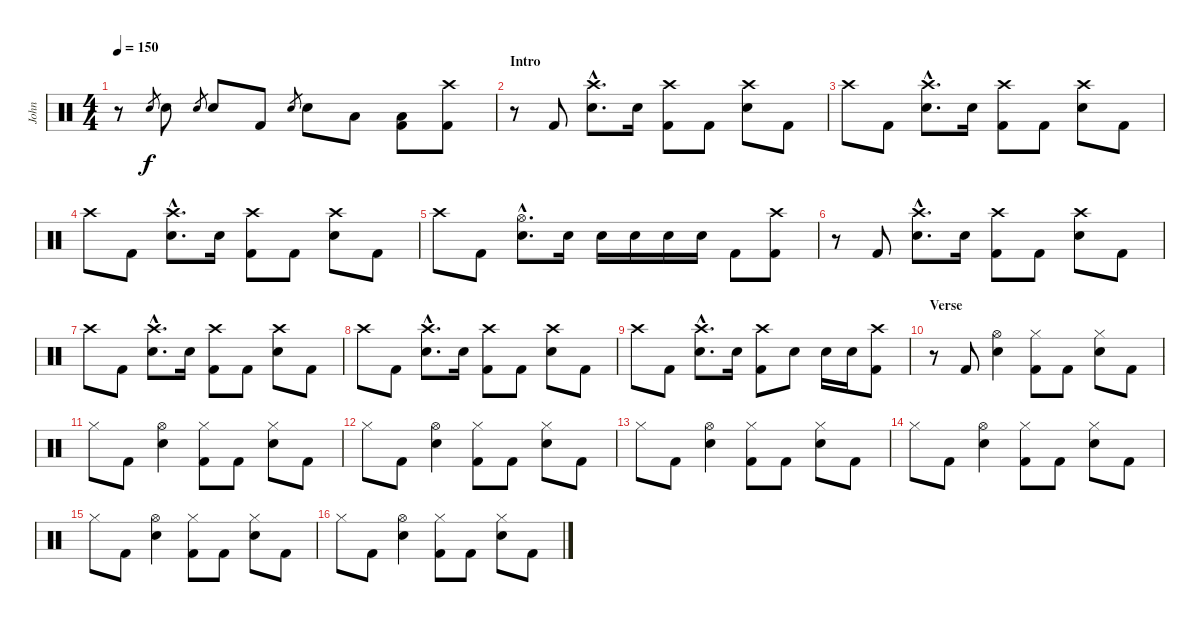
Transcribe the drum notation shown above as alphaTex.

\track ("John" "John") {instrument percussion}
\staff {score}
\articulation defaults
\ts (4 4)
\tempo 150
\clef neutral
\ks c
r.8{dy f} "Electric Snare (hit)".8{gr} "Electric Snare (hit)".8 "Electric Snare (hit)".8{gr} "Electric Snare (hit)".8 "Kick (hit) 2".8 "Electric Snare (hit)".8{gr} "Electric Snare (hit)".8 "Low Tom (hit)".8 ("Low Floor Tom (hit)" "Kick (hit) 2").8 ("Crash high (hit)" "Kick (hit) 2").8 |
\section ("" "Intro")
r.8 "Kick (hit) 2".8 ("Crash high (hit)"{hac} "Electric Snare (hit)"{hac}).8{d} "Electric Snare (hit)".16 ("Crash high (hit)" "Kick (hit) 2").8 "Kick (hit) 2".8 ("Crash high (hit)" "Electric Snare (hit)").8 "Kick (hit) 2".8 |
"Crash high (hit)".8 "Kick (hit) 2".8 ("Crash high (hit)"{hac} "Electric Snare (hit)"{hac}).8{d} "Electric Snare (hit)".16 ("Crash high (hit)" "Kick (hit) 2").8 "Kick (hit) 2".8 ("Crash high (hit)" "Electric Snare (hit)").8 "Kick (hit) 2".8 |
"Crash high (hit)".8 "Kick (hit) 2".8 ("Crash high (hit)"{hac} "Electric Snare (hit)"{hac}).8{d} "Electric Snare (hit)".16 ("Crash high (hit)" "Kick (hit) 2").8 "Kick (hit) 2".8 ("Crash high (hit)" "Electric Snare (hit)").8 "Kick (hit) 2".8 |
"Crash high (hit)".8 "Kick (hit) 2".8 ("Hi-Hat (open)"{hac} "Electric Snare (hit)"{hac}).8{d} "Electric Snare (hit)".16 "Electric Snare (hit)".16 "Electric Snare (hit)".16 "Electric Snare (hit)".16 "Electric Snare (hit)".16 "Kick (hit) 2".8 ("Crash high (hit)" "Kick (hit) 2").8 |
r.8 "Kick (hit) 2".8 ("Crash high (hit)"{hac} "Electric Snare (hit)"{hac}).8{d} "Electric Snare (hit)".16 ("Crash high (hit)" "Kick (hit) 2").8 "Kick (hit) 2".8 ("Crash high (hit)" "Electric Snare (hit)").8 "Kick (hit) 2".8 |
"Crash high (hit)".8 "Kick (hit) 2".8 ("Crash high (hit)"{hac} "Electric Snare (hit)"{hac}).8{d} "Electric Snare (hit)".16 ("Crash high (hit)" "Kick (hit) 2").8 "Kick (hit) 2".8 ("Crash high (hit)" "Electric Snare (hit)").8 "Kick (hit) 2".8 |
"Crash high (hit)".8 "Kick (hit) 2".8 ("Crash high (hit)"{hac} "Electric Snare (hit)"{hac}).8{d} "Electric Snare (hit)".16 ("Crash high (hit)" "Kick (hit) 2").8 "Kick (hit) 2".8 ("Crash high (hit)" "Electric Snare (hit)").8 "Kick (hit) 2".8 |
"Crash high (hit)".8 "Kick (hit) 2".8 ("Crash high (hit)"{hac} "Electric Snare (hit)"{hac}).8{d} "Electric Snare (hit)".16 ("Crash high (hit)" "Kick (hit) 2").8 "Electric Snare (hit)".8 "Electric Snare (hit)".16 "Electric Snare (hit)".16 ("Crash high (hit)" "Kick (hit) 2").8 |
\section ("" "Verse")
r.8 "Kick (hit) 2".8 ("Hi-Hat (open)" "Electric Snare (hit)").4 ("Hi-Hat (closed)" "Kick (hit) 2").8 "Kick (hit) 2".8 ("Hi-Hat (closed)" "Electric Snare (hit)").8 "Kick (hit) 2".8 |
"Hi-Hat (closed)".8 "Kick (hit) 2".8 ("Hi-Hat (open)" "Electric Snare (hit)").4 ("Hi-Hat (closed)" "Kick (hit) 2").8 "Kick (hit) 2".8 ("Hi-Hat (closed)" "Electric Snare (hit)").8 "Kick (hit) 2".8 |
"Hi-Hat (closed)".8 "Kick (hit) 2".8 ("Hi-Hat (open)" "Electric Snare (hit)").4 ("Hi-Hat (closed)" "Kick (hit) 2").8 "Kick (hit) 2".8 ("Hi-Hat (closed)" "Electric Snare (hit)").8 "Kick (hit) 2".8 |
"Hi-Hat (closed)".8 "Kick (hit) 2".8 ("Hi-Hat (open)" "Electric Snare (hit)").4 ("Hi-Hat (closed)" "Kick (hit) 2").8 "Kick (hit) 2".8 ("Hi-Hat (closed)" "Electric Snare (hit)").8 "Kick (hit) 2".8 |
"Hi-Hat (closed)".8 "Kick (hit) 2".8 ("Hi-Hat (open)" "Electric Snare (hit)").4 ("Hi-Hat (closed)" "Kick (hit) 2").8 "Kick (hit) 2".8 ("Hi-Hat (closed)" "Electric Snare (hit)").8 "Kick (hit) 2".8 |
"Hi-Hat (closed)".8 "Kick (hit) 2".8 ("Hi-Hat (open)" "Electric Snare (hit)").4 ("Hi-Hat (closed)" "Kick (hit) 2").8 "Kick (hit) 2".8 ("Hi-Hat (closed)" "Electric Snare (hit)").8 "Kick (hit) 2".8 |
"Hi-Hat (closed)".8 "Kick (hit) 2".8 ("Hi-Hat (open)" "Electric Snare (hit)").4 ("Hi-Hat (closed)" "Kick (hit) 2").8 "Kick (hit) 2".8 ("Hi-Hat (closed)" "Electric Snare (hit)").8 "Kick (hit) 2".8
